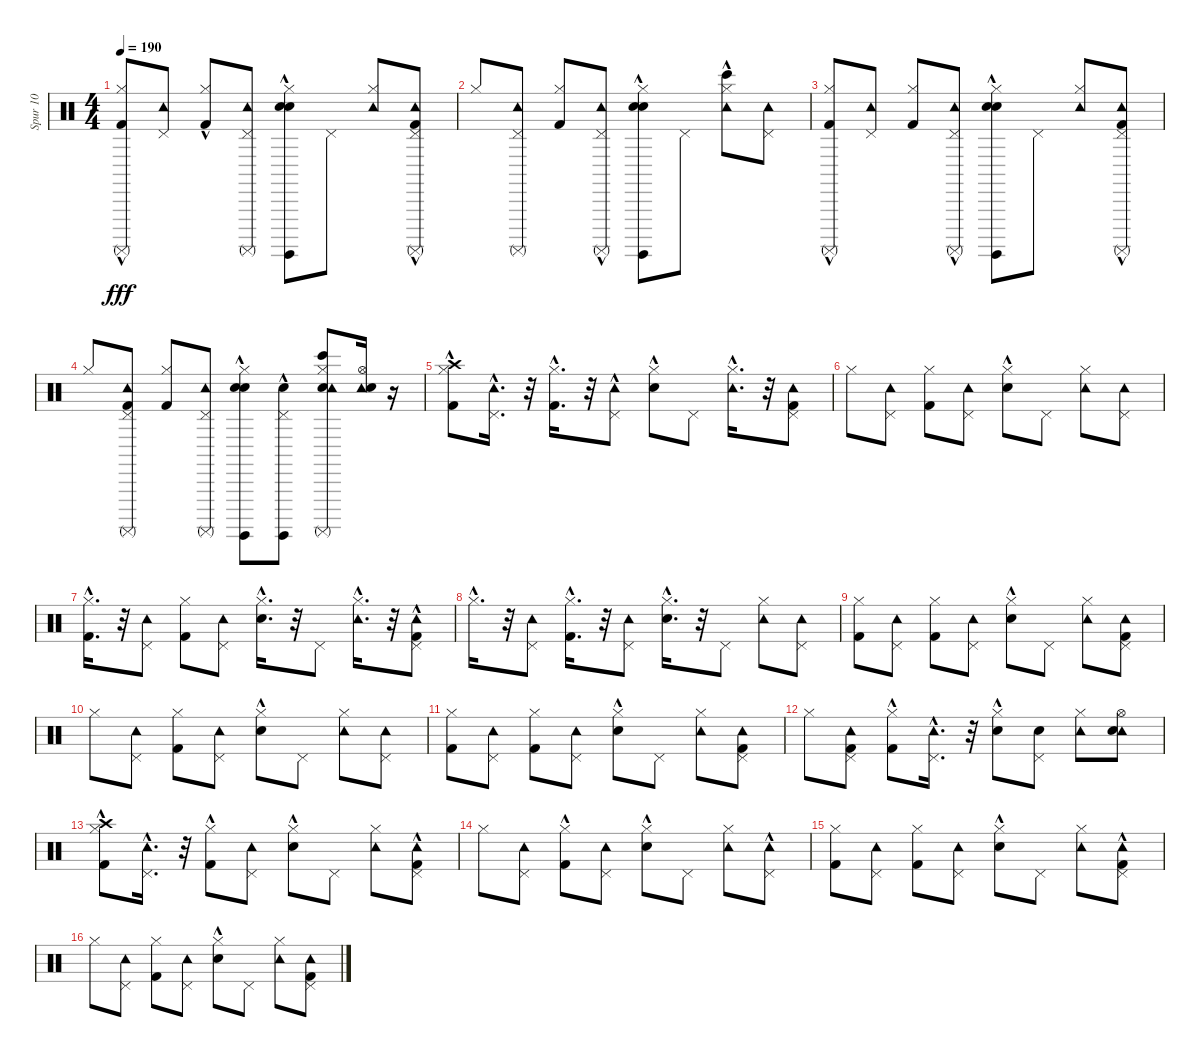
\track ("Spur 10" "Spur 10") {instrument percussion}
\staff {score}
\articulation defaults
\ts (4 4)
\tempo 190
\clef neutral
\ks c
("Surdo (mute)" "Hi-Hat (closed)" "Kick (hit) 2"{hac}).8{dy fff} ("Tambourine (hit)" "Pedal Hi-Hat (hit)").8 ("Hi-Hat (closed)" "Kick (hit) 2"{hac}).8 ("Surdo (mute)" "Pedal Hi-Hat (hit)" "Tambourine (hit)").8 ("Hand Clap (hit)"{hac} "Surdo (hit)"{hac} "Hi-Hat (closed)" "Electric Snare (hit)"{hac}).8 "Pedal Hi-Hat (hit)".8 ("Tambourine (hit)" "Hi-Hat (closed)").8 ("Surdo (mute)" "Pedal Hi-Hat (hit)" "Kick (hit) 2"{hac} "Tambourine (hit)").8 |
"Hi-Hat (closed)".8 ("Surdo (mute)" "Tambourine (hit)" "Pedal Hi-Hat (hit)").8 ("Hi-Hat (closed)" "Kick (hit) 2").8 ("Surdo (mute)"{hac} "Pedal Hi-Hat (hit)" "Tambourine (hit)").8 ("Hand Clap (hit)"{hac} "Surdo (hit)"{hac} "Hi-Hat (closed)" "Electric Snare (hit)"{hac}).8 "Pedal Hi-Hat (hit)".8 ("Bongo High (hit)"{hac} "Tambourine (hit)" "Hi-Hat (closed)").8 ("Pedal Hi-Hat (hit)" "Tambourine (hit)").8 |
("Surdo (mute)" "Hi-Hat (closed)" "Kick (hit) 2"{hac}).8 ("Tambourine (hit)" "Pedal Hi-Hat (hit)").8 ("Hi-Hat (closed)" "Kick (hit) 2").8 ("Surdo (mute)"{hac} "Pedal Hi-Hat (hit)" "Tambourine (hit)").8 ("Surdo (hit)"{hac} "Hand Clap (hit)"{hac} "Hi-Hat (closed)" "Electric Snare (hit)"{hac}).8 "Pedal Hi-Hat (hit)".8 ("Tambourine (hit)" "Hi-Hat (closed)").8 ("Surdo (mute)" "Pedal Hi-Hat (hit)" "Kick (hit) 2"{hac} "Tambourine (hit)").8 |
"Hi-Hat (closed)".8 ("Surdo (mute)" "Tambourine (hit)" "Kick (hit) 2" "Pedal Hi-Hat (hit)").8 ("Kick (hit) 2" "Hi-Hat (closed)").8 ("Surdo (mute)" "Tambourine (hit)" "Pedal Hi-Hat (hit)").8 ("Hand Clap (hit)"{hac} "Surdo (hit)" "Electric Snare (hit)" "Hi-Hat (closed)").8 ("Surdo (hit)"{hac} "Electric Snare (hit)" "Pedal Hi-Hat (hit)").8 ("Surdo (mute)" "Bongo High (hit)" "Electric Snare (hit)" "Tambourine (hit)" "Hi-Hat (closed)").8 ("Tambourine (hit)" "Electric Snare (hit)" "Hi-Hat (open)").16 r.16 |
("Crash high (hit)"{hac} "Kick (hit) 2" "Hi-Hat (closed)").8 ("Tambourine (hit)" "Pedal Hi-Hat (hit)"{hac}).16{d} r.32 ("Hi-Hat (closed)"{hac} "Kick (hit) 2").16{d} r.32 ("Tambourine (hit)"{hac} "Pedal Hi-Hat (hit)").8 ("Hi-Hat (closed)" "Electric Snare (hit)"{hac}).8 "Pedal Hi-Hat (hit)".8 ("Tambourine (hit)" "Hi-Hat (closed)"{hac}).16{d} r.32 ("Tambourine (hit)" "Pedal Hi-Hat (hit)" "Kick (hit) 2").8 |
"Hi-Hat (closed)".8 ("Tambourine (hit)" "Pedal Hi-Hat (hit)").8 ("Hi-Hat (closed)" "Kick (hit) 2").8 ("Tambourine (hit)" "Pedal Hi-Hat (hit)").8 ("Hi-Hat (closed)" "Electric Snare (hit)"{hac}).8 "Pedal Hi-Hat (hit)".8 ("Tambourine (hit)" "Hi-Hat (closed)").8 ("Tambourine (hit)" "Pedal Hi-Hat (hit)").8 |
("Hi-Hat (closed)"{hac} "Kick (hit) 2").16{d} r.32 ("Tambourine (hit)" "Pedal Hi-Hat (hit)").8 ("Hi-Hat (closed)" "Kick (hit) 2").8 ("Tambourine (hit)" "Pedal Hi-Hat (hit)").8 ("Hi-Hat (closed)"{hac} "Electric Snare (hit)"{hac}).16{d} r.32 "Pedal Hi-Hat (hit)".8 ("Tambourine (hit)" "Hi-Hat (closed)"{hac}).16{d} r.32 ("Tambourine (hit)"{hac} "Pedal Hi-Hat (hit)" "Kick (hit) 2").8 |
"Hi-Hat (closed)"{hac}.16{d} r.32 ("Tambourine (hit)" "Pedal Hi-Hat (hit)").8 ("Kick (hit) 2" "Hi-Hat (closed)"{hac}).16{d} r.32 ("Tambourine (hit)" "Pedal Hi-Hat (hit)").8 ("Hi-Hat (closed)"{hac} "Electric Snare (hit)"{hac}).16{d} r.32 "Pedal Hi-Hat (hit)".8 ("Tambourine (hit)" "Hi-Hat (closed)").8 ("Tambourine (hit)" "Pedal Hi-Hat (hit)").8 |
("Hi-Hat (closed)" "Kick (hit) 2").8 ("Pedal Hi-Hat (hit)" "Tambourine (hit)").8 ("Hi-Hat (closed)" "Kick (hit) 2").8 ("Tambourine (hit)" "Pedal Hi-Hat (hit)").8 ("Hi-Hat (closed)" "Electric Snare (hit)"{hac}).8 "Pedal Hi-Hat (hit)".8 ("Tambourine (hit)" "Hi-Hat (closed)").8 ("Tambourine (hit)" "Pedal Hi-Hat (hit)" "Kick (hit) 2").8 |
"Hi-Hat (closed)".8 ("Tambourine (hit)" "Pedal Hi-Hat (hit)").8 ("Kick (hit) 2" "Hi-Hat (closed)").8 ("Pedal Hi-Hat (hit)" "Tambourine (hit)").8 ("Hi-Hat (closed)" "Electric Snare (hit)"{hac}).8 "Pedal Hi-Hat (hit)".8 ("Tambourine (hit)" "Hi-Hat (closed)").8 ("Tambourine (hit)" "Pedal Hi-Hat (hit)").8 |
("Hi-Hat (closed)" "Kick (hit) 2").8 ("Pedal Hi-Hat (hit)" "Tambourine (hit)").8 ("Kick (hit) 2" "Hi-Hat (closed)").8 ("Tambourine (hit)" "Pedal Hi-Hat (hit)").8 ("Hi-Hat (closed)" "Electric Snare (hit)"{hac}).8 "Pedal Hi-Hat (hit)".8 ("Tambourine (hit)" "Hi-Hat (closed)").8 ("Tambourine (hit)" "Pedal Hi-Hat (hit)" "Kick (hit) 2").8 |
"Hi-Hat (closed)".8 ("Tambourine (hit)" "Pedal Hi-Hat (hit)" "Kick (hit) 2").8 ("Hi-Hat (closed)" "Kick (hit) 2"{hac}).8 ("Pedal Hi-Hat (hit)"{hac} "Tambourine (hit)").16{d} r.32 ("Hi-Hat (closed)" "Electric Snare (hit)"{hac}).8 ("Electric Snare (hit)" "Pedal Hi-Hat (hit)").8 ("Tambourine (hit)" "Hi-Hat (closed)").8 ("Tambourine (hit)" "Hi-Hat (open)" "Electric Snare (hit)").8 |
("Crash high (hit)"{hac} "Hi-Hat (closed)" "Kick (hit) 2").8 ("Tambourine (hit)" "Pedal Hi-Hat (hit)"{hac}).16{d} r.32 ("Kick (hit) 2"{hac} "Hi-Hat (closed)").8 ("Tambourine (hit)" "Pedal Hi-Hat (hit)").8 ("Hi-Hat (closed)" "Electric Snare (hit)"{hac}).8 "Pedal Hi-Hat (hit)".8 ("Tambourine (hit)" "Hi-Hat (closed)").8 ("Tambourine (hit)" "Pedal Hi-Hat (hit)" "Kick (hit) 2"{hac}).8 |
"Hi-Hat (closed)".8 ("Tambourine (hit)" "Pedal Hi-Hat (hit)").8 ("Hi-Hat (closed)" "Kick (hit) 2"{hac}).8 ("Pedal Hi-Hat (hit)" "Tambourine (hit)").8 ("Hi-Hat (closed)" "Electric Snare (hit)"{hac}).8 "Pedal Hi-Hat (hit)".8 ("Tambourine (hit)" "Hi-Hat (closed)").8 ("Tambourine (hit)"{hac} "Pedal Hi-Hat (hit)").8 |
("Hi-Hat (closed)" "Kick (hit) 2").8 ("Tambourine (hit)" "Pedal Hi-Hat (hit)").8 ("Hi-Hat (closed)" "Kick (hit) 2").8 ("Tambourine (hit)" "Pedal Hi-Hat (hit)").8 ("Hi-Hat (closed)" "Electric Snare (hit)"{hac}).8 "Pedal Hi-Hat (hit)".8 ("Tambourine (hit)" "Hi-Hat (closed)").8 ("Tambourine (hit)" "Pedal Hi-Hat (hit)" "Kick (hit) 2"{hac}).8 |
"Hi-Hat (closed)".8 ("Tambourine (hit)" "Pedal Hi-Hat (hit)").8 ("Hi-Hat (closed)" "Kick (hit) 2").8 ("Tambourine (hit)" "Pedal Hi-Hat (hit)").8 ("Hi-Hat (closed)" "Electric Snare (hit)"{hac}).8 "Pedal Hi-Hat (hit)".8 ("Tambourine (hit)" "Hi-Hat (closed)").8 ("Tambourine (hit)" "Pedal Hi-Hat (hit)" "Kick (hit) 2").8
